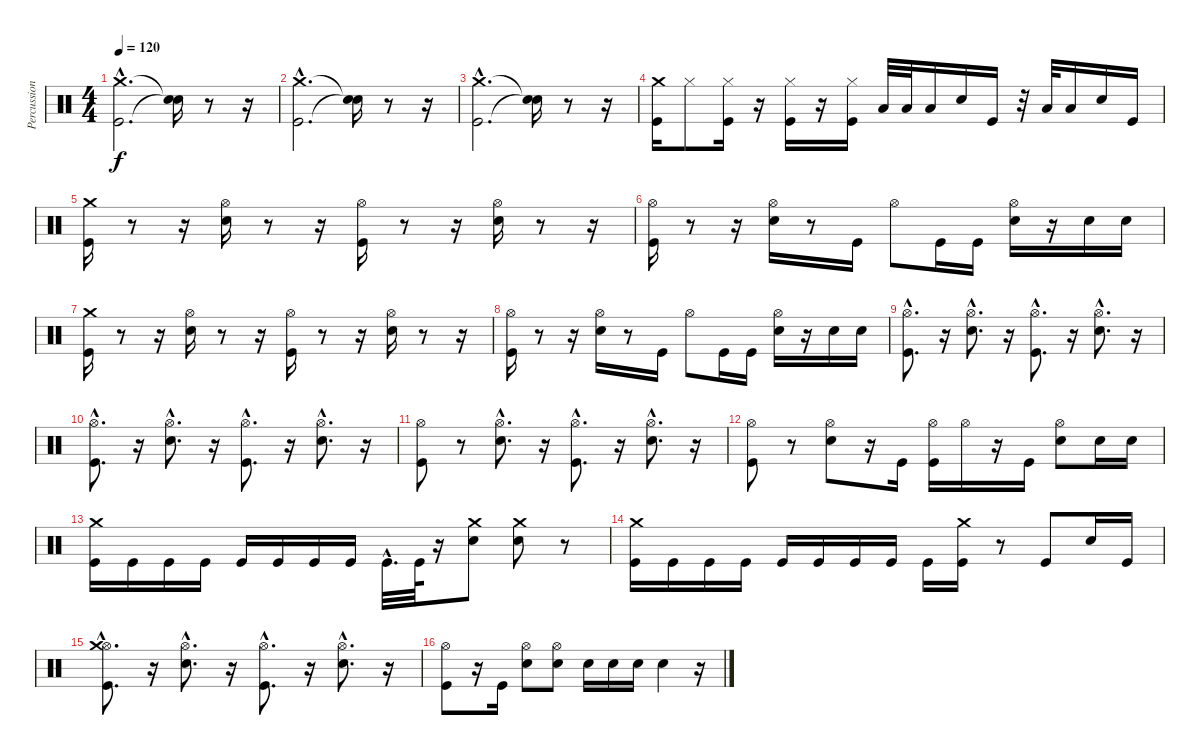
\track ("Percussion" "Percussion") {instrument percussion}
\staff {score}
\articulation defaults
\ts (4 4)
\tempo 120
\clef neutral
\ks c
("Kick (hit)"{hac} "Crash medium (hit)"{hac}).2{d dy f} ("Snare (hit)"{t} "Snare (hit)"{t}).16 r.8 r.16 |
("Kick (hit)"{hac} "Crash medium (hit)"{hac}).2{d} ("Snare (hit)"{t} "Snare (hit)"{t}).16 r.8 r.16 |
("Kick (hit)"{hac} "Crash medium (hit)"{hac}).2{d} ("Snare (hit)"{t} "Snare (hit)"{t}).16 r.8 r.16 |
("Kick (hit)" "Crash medium (hit)").16 "Hi-Hat (closed)".8 ("Kick (hit)" "Hi-Hat (closed)").16 r.16 ("Kick (hit)" "Hi-Hat (closed)").16 r.16 ("Kick (hit)" "Hi-Hat (closed)").16 "Low Tom (hit)".32 "Low Tom (hit)".32 "Low Tom (hit)".16 "Electric Snare (hit)".16 "Kick (hit)".16 r.32 "Low Tom (hit)".32 "Low Tom (hit)".16 "Electric Snare (hit)".16 "Kick (hit)".16 |
("Kick (hit)" "Crash medium (hit)").16 r.8 r.16 ("Hi-Hat (open)" "Electric Snare (hit)").16 r.8 r.16 ("Hi-Hat (open)" "Kick (hit)").16 r.8 r.16 ("Hi-Hat (open)" "Electric Snare (hit)").16 r.8 r.16 |
("Hi-Hat (open)" "Kick (hit)").16 r.8 r.16 ("Hi-Hat (open)" "Electric Snare (hit)").16 r.8 "Kick (hit)".16 "Hi-Hat (open)".8 "Kick (hit)".16 "Kick (hit)".16 ("Hi-Hat (open)" "Electric Snare (hit)").16 r.16 "Electric Snare (hit)".16 "Electric Snare (hit)".16 |
("Kick (hit)" "Crash medium (hit)").16 r.8 r.16 ("Hi-Hat (open)" "Electric Snare (hit)").16 r.8 r.16 ("Hi-Hat (open)" "Kick (hit)").16 r.8 r.16 ("Hi-Hat (open)" "Electric Snare (hit)").16 r.8 r.16 |
("Hi-Hat (open)" "Kick (hit)").16 r.8 r.16 ("Hi-Hat (open)" "Electric Snare (hit)").16 r.8 "Kick (hit)".16 "Hi-Hat (open)".8 "Kick (hit)".16 "Kick (hit)".16 ("Hi-Hat (open)" "Electric Snare (hit)").16 r.16 "Electric Snare (hit)".16 "Electric Snare (hit)".16 |
("Hi-Hat (open)"{hac} "Kick (hit)"{hac}).8{d} r.16 ("Hi-Hat (open)"{hac} "Electric Snare (hit)"{hac}).8{d} r.16 ("Hi-Hat (open)"{hac} "Kick (hit)"{hac}).8{d} r.16 ("Hi-Hat (open)"{hac} "Electric Snare (hit)"{hac}).8{d} r.16 |
("Hi-Hat (open)"{hac} "Kick (hit)"{hac}).8{d} r.16 ("Hi-Hat (open)"{hac} "Electric Snare (hit)"{hac}).8{d} r.16 ("Hi-Hat (open)"{hac} "Kick (hit)"{hac}).8{d} r.16 ("Hi-Hat (open)"{hac} "Electric Snare (hit)"{hac}).8{d} r.16 |
("Hi-Hat (open)" "Kick (hit)").8 r.8 ("Hi-Hat (open)"{hac} "Electric Snare (hit)"{hac}).8{d} r.16 ("Hi-Hat (open)"{hac} "Kick (hit)"{hac}).8{d} r.16 ("Hi-Hat (open)"{hac} "Electric Snare (hit)"{hac}).8{d} r.16 |
("Hi-Hat (open)" "Kick (hit)").8 r.8 ("Hi-Hat (open)" "Electric Snare (hit)").8 r.16 "Kick (hit)".16 ("Hi-Hat (open)" "Kick (hit)").16 "Hi-Hat (open)".16 r.16 "Kick (hit)".16 ("Hi-Hat (open)" "Electric Snare (hit)").8 "Electric Snare (hit)".16 "Electric Snare (hit)".16 |
("Kick (hit)" "Crash medium (hit)").16 "Kick (hit)".16 "Kick (hit)".16 "Kick (hit)".16 "Kick (hit)".16 "Kick (hit)".16 "Kick (hit)".16 "Kick (hit)".16 "Kick (hit)"{hac}.32{d} "Kick (hit)".64 r.16 ("Crash medium (hit)" "Electric Snare (hit)").8 ("Crash medium (hit)" "Electric Snare (hit)").8 r.8 |
("Kick (hit)" "Crash medium (hit)").16 "Kick (hit)".16 "Kick (hit)".16 "Kick (hit)".16 "Kick (hit)".16 "Kick (hit)".16 "Kick (hit)".16 "Kick (hit)".16 "Kick (hit)".16 ("Kick (hit)" "Crash medium (hit)").16 r.8 "Kick (hit)".8 "Electric Snare (hit)".16 "Kick (hit)".16 |
("Hi-Hat (open)"{hac} "Kick (hit)"{hac} "Crash medium (hit)"{hac}).8{d} r.16 ("Hi-Hat (open)"{hac} "Electric Snare (hit)"{hac}).8{d} r.16 ("Hi-Hat (open)"{hac} "Kick (hit)"{hac}).8{d} r.16 ("Hi-Hat (open)"{hac} "Electric Snare (hit)"{hac}).8{d} r.16 |
("Hi-Hat (open)" "Kick (hit)").8 r.16 "Kick (hit)".16 ("Hi-Hat (open)" "Electric Snare (hit)").8 ("Hi-Hat (open)" "Electric Snare (hit)").8 "Electric Snare (hit)".16 "Electric Snare (hit)".16 "Electric Snare (hit)".16 "Electric Snare (hit)".4 r.16
